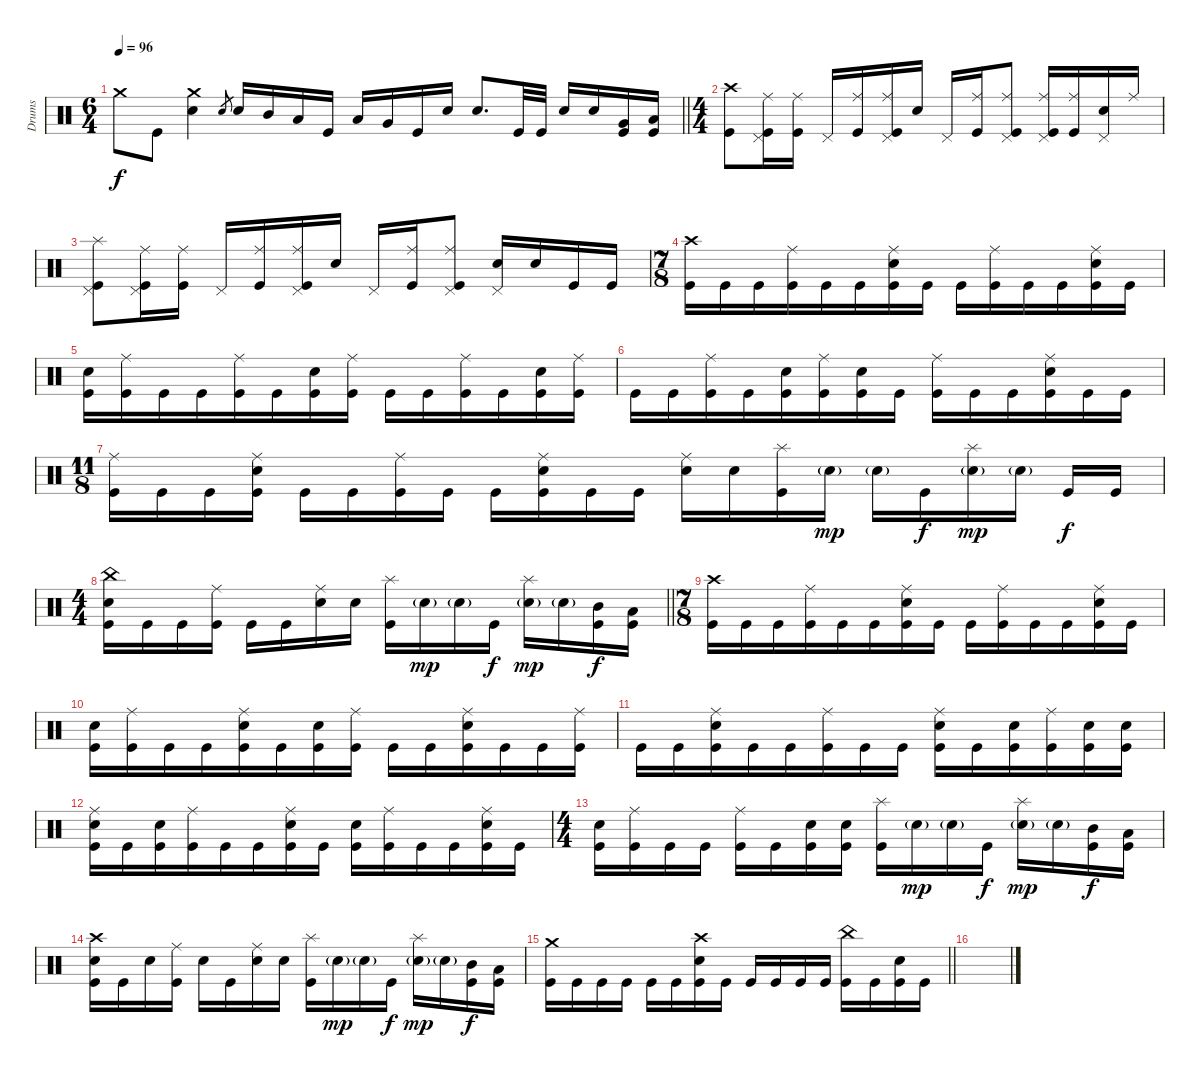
\track ("Drums" "Drums") {instrument percussion}
\staff
\articulation defaults
\ts (6 4)
\tempo 96
\clef neutral
\barLineRight lightlight
\ks c "Crash medium (hit)".8{dy f} "Kick (hit)".8
("Crash medium (hit)" "Electric Snare (hit)").4 "Electric Snare (hit)".8{gr} "Electric Snare (hit)".16 "Mid Tom (hit)".16 "Low Tom (hit)".16 "Kick (hit)".16 "Low Tom (hit)".16 "Very Low Tom (hit)".16 "Kick (hit)".16 "Electric Snare (hit)".16 "Electric Snare (hit)".8{d} "Kick (hit)".32 "Kick (hit)".32 "Electric Snare (hit)".16 "Electric Snare (hit)".16 ("Very Low Tom (hit)" "Kick (hit)").16 ("Low Floor Tom (hit)" "Kick (hit)").16 |
\ts (4 4)
\section ("" "")
("Crash high (hit)" "Kick (hit)").8 ("Ride (middle)" "Pedal Hi-Hat (hit)" "Kick (hit)").16 ("Ride (middle)" "Kick (hit)").16 "Pedal Hi-Hat (hit)".16 ("Ride (middle)" "Kick (hit)").16 ("Ride (middle)" "Pedal Hi-Hat (hit)" "Kick (hit)").16 "Electric Snare (hit)".16 "Pedal Hi-Hat (hit)".16 ("Ride (middle)" "Kick (hit)").16 ("Ride (middle)" "Pedal Hi-Hat (hit)" "Kick (hit)").8 ("Ride (middle)" "Pedal Hi-Hat (hit)" "Kick (hit)").16 ("Ride (middle)" "Kick (hit)").16 ("Pedal Hi-Hat (hit)" "Electric Snare (hit)").16 "Ride (middle)".16 |
("Splash (hit)" "Pedal Hi-Hat (hit)" "Kick (hit)").8 ("Ride (middle)" "Pedal Hi-Hat (hit)" "Kick (hit)").16 ("Ride (middle)" "Kick (hit)").16 "Pedal Hi-Hat (hit)".16 ("Ride (middle)" "Kick (hit)").16 ("Ride (middle)" "Pedal Hi-Hat (hit)" "Kick (hit)").16 "Electric Snare (hit)".16 "Pedal Hi-Hat (hit)".16 ("Ride (middle)" "Kick (hit)").16 ("Ride (middle)" "Pedal Hi-Hat (hit)" "Kick (hit)").8 ("Pedal Hi-Hat (hit)" "Electric Snare (hit)").16 "Electric Snare (hit)".16 "Kick (hit)".16 "Kick (hit)".16 |
\ts (7 8)
("Crash high (hit)" "Kick (hit)").16 "Kick (hit)".16 "Kick (hit)".16 ("Ride (middle)" "Kick (hit)").16 "Kick (hit)".16 "Kick (hit)".16 ("Ride (middle)" "Electric Snare (hit)" "Kick (hit)").16 "Kick (hit)".16 "Kick (hit)".16 ("Ride (middle)" "Kick (hit)").16 "Kick (hit)".16 "Kick (hit)".16 ("Ride (middle)" "Electric Snare (hit)" "Kick (hit)").16 "Kick (hit)".16 |
("Electric Snare (hit)" "Kick (hit)").16 ("Ride (middle)" "Kick (hit)").16 "Kick (hit)".16 "Kick (hit)".16 ("Ride (middle)" "Kick (hit)").16 "Kick (hit)".16 ("Electric Snare (hit)" "Kick (hit)").16 ("Ride (middle)" "Kick (hit)").16 "Kick (hit)".16 "Kick (hit)".16 ("Ride (middle)" "Kick (hit)").16 "Kick (hit)".16 ("Electric Snare (hit)" "Kick (hit)").16 ("Ride (middle)" "Kick (hit)").16 |
"Kick (hit)".16 "Kick (hit)".16 ("Ride (middle)" "Kick (hit)").16 "Kick (hit)".16 ("Electric Snare (hit)" "Kick (hit)").16 ("Ride (middle)" "Kick (hit)").16 ("Electric Snare (hit)" "Kick (hit)").16 "Kick (hit)".16 ("Ride (middle)" "Kick (hit)").16 "Kick (hit)".16 "Kick (hit)".16 ("Ride (middle)" "Electric Snare (hit)" "Kick (hit)").16 "Kick (hit)".16 "Kick (hit)".16 |
\ts (11 8)
("Ride (middle)" "Kick (hit)").16 "Kick (hit)".16 "Kick (hit)".16 ("Ride (middle)" "Electric Snare (hit)" "Kick (hit)").16 "Kick (hit)".16 "Kick (hit)".16 ("Ride (middle)" "Kick (hit)").16 "Kick (hit)".16 "Kick (hit)".16 ("Ride (middle)" "Electric Snare (hit)" "Kick (hit)").16 "Kick (hit)".16 "Kick (hit)".16 ("Ride (middle)" "Electric Snare (hit)").16 "Electric Snare (hit)".16 ("Splash (hit)" "Kick (hit)").16 "Electric Snare (hit)"{g}.16{dy mp} "Electric Snare (hit)"{g}.16 "Kick (hit)".16{dy f} ("Splash (hit)" "Electric Snare (hit)"{g}).16{dy mp} "Electric Snare (hit)"{g}.16 "Kick (hit)".16{dy f} "Kick (hit)".16 |
\ts (4 4)
\barLineRight lightlight
("China (hit)" "Electric Snare (hit)" "Kick (hit)").16 "Kick (hit)".16 "Kick (hit)".16 ("Ride (middle)" "Kick (hit)").16 "Kick (hit)".16 "Kick (hit)".16 ("Ride (middle)" "Electric Snare (hit)").16 "Electric Snare (hit)".16 ("Splash (hit)" "Kick (hit)").16 "Electric Snare (hit)"{g}.16{dy mp} "Electric Snare (hit)"{g}.16 "Kick (hit)".16{dy f} ("Splash (hit)" "Electric Snare (hit)"{g}).16{dy mp} "Electric Snare (hit)"{g}.16 ("Mid Tom (hit)" "Kick (hit)").16{dy f} ("Low Tom (hit)" "Kick (hit)").16 |
\ts (7 8)
("Crash high (hit)" "Kick (hit)").16 "Kick (hit)".16 "Kick (hit)".16 ("Ride (middle)" "Kick (hit)").16 "Kick (hit)".16 "Kick (hit)".16 ("Ride (middle)" "Electric Snare (hit)" "Kick (hit)").16 "Kick (hit)".16 "Kick (hit)".16 ("Ride (middle)" "Kick (hit)").16 "Kick (hit)".16 "Kick (hit)".16 ("Ride (middle)" "Electric Snare (hit)" "Kick (hit)").16 "Kick (hit)".16 |
("Electric Snare (hit)" "Kick (hit)").16 ("Ride (middle)" "Kick (hit)").16 "Kick (hit)".16 "Kick (hit)".16 ("Ride (middle)" "Electric Snare (hit)" "Kick (hit)").16 "Kick (hit)".16 ("Electric Snare (hit)" "Kick (hit)").16 ("Ride (middle)" "Kick (hit)").16 "Kick (hit)".16 "Kick (hit)".16 ("Ride (middle)" "Electric Snare (hit)" "Kick (hit)").16 "Kick (hit)".16 "Kick (hit)".16 ("Ride (middle)" "Kick (hit)").16 |
"Kick (hit)".16 "Kick (hit)".16 ("Ride (middle)" "Electric Snare (hit)" "Kick (hit)").16 "Kick (hit)".16 "Kick (hit)".16 ("Ride (middle)" "Kick (hit)").16 "Kick (hit)".16 "Kick (hit)".16 ("Ride (middle)" "Electric Snare (hit)" "Kick (hit)").16 "Kick (hit)".16 ("Electric Snare (hit)" "Kick (hit)").16 ("Ride (middle)" "Kick (hit)").16 ("Electric Snare (hit)" "Kick (hit)").16 ("Electric Snare (hit)" "Kick (hit)").16 |
("Ride (middle)" "Electric Snare (hit)" "Kick (hit)").16 "Kick (hit)".16 ("Electric Snare (hit)" "Kick (hit)").16 ("Ride (middle)" "Kick (hit)").16 "Kick (hit)".16 "Kick (hit)".16 ("Ride (middle)" "Electric Snare (hit)" "Kick (hit)").16 "Kick (hit)".16 ("Electric Snare (hit)" "Kick (hit)").16 ("Ride (middle)" "Kick (hit)").16 "Kick (hit)".16 "Kick (hit)".16 ("Ride (middle)" "Electric Snare (hit)" "Kick (hit)").16 "Kick (hit)".16 |
\ts (4 4)
("Electric Snare (hit)" "Kick (hit)").16 ("Ride (middle)" "Kick (hit)").16 "Kick (hit)".16 "Kick (hit)".16 ("Ride (middle)" "Kick (hit)").16 "Kick (hit)".16 ("Electric Snare (hit)" "Kick (hit)").16 ("Electric Snare (hit)" "Kick (hit)").16 ("Splash (hit)" "Kick (hit)").16 "Electric Snare (hit)"{g}.16{dy mp} "Electric Snare (hit)"{g}.16 "Kick (hit)".16{dy f} ("Splash (hit)" "Electric Snare (hit)"{g}).16{dy mp} "Electric Snare (hit)"{g}.16 ("Mid Tom (hit)" "Kick (hit)").16{dy f} ("Low Tom (hit)" "Kick (hit)").16 |
("Crash high (hit)" "Electric Snare (hit)" "Kick (hit)").16 "Kick (hit)".16 "Electric Snare (hit)".16 ("Ride (middle)" "Kick (hit)").16 "Electric Snare (hit)".16 "Kick (hit)".16 ("Ride (middle)" "Electric Snare (hit)").16 "Electric Snare (hit)".16 ("Splash (hit)" "Kick (hit)").16 "Electric Snare (hit)"{g}.16{dy mp} "Electric Snare (hit)"{g}.16 "Kick (hit)".16{dy f} ("Splash (hit)" "Electric Snare (hit)"{g}).16{dy mp} "Electric Snare (hit)"{g}.16 ("Mid Tom (hit)" "Kick (hit)").16{dy f} ("Low Tom (hit)" "Kick (hit)").16 |
\barLineRight lightlight
("Crash medium (hit)" "Kick (hit)").16 "Kick (hit)".16 "Kick (hit)".16 "Kick (hit)".16 "Kick (hit)".16 "Kick (hit)".16 ("Crash high (hit)" "Electric Snare (hit)" "Kick (hit)").16 "Kick (hit)".16 "Kick (hit)".16 "Kick (hit)".16 "Kick (hit)".16 "Kick (hit)".16 ("China (hit)" "Kick (hit)").16 "Kick (hit)".16 ("Electric Snare (hit)" "Kick (hit)").16 "Kick (hit)".16 |
\section ("" "")
